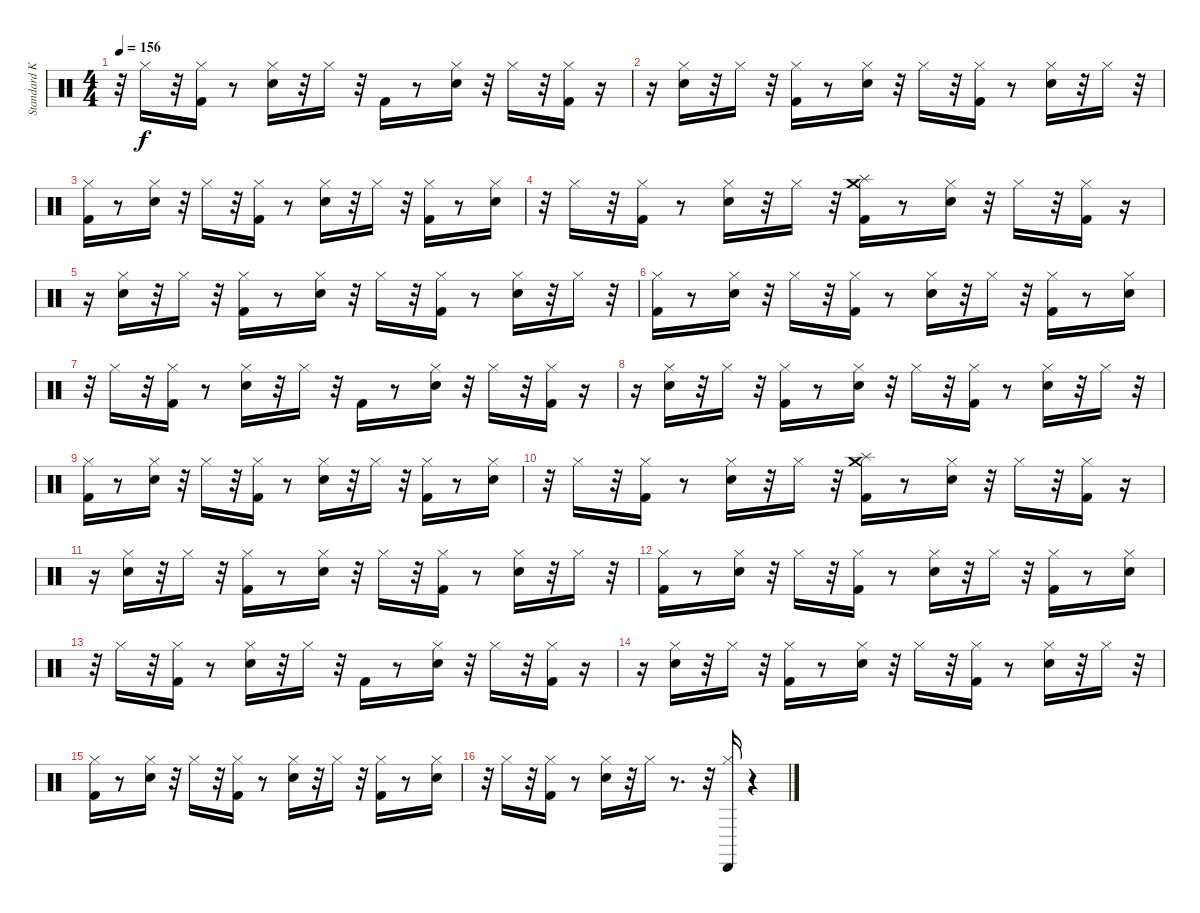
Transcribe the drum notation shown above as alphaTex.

\track ("Standard Kit" "Standard K") {instrument percussion}
\staff {score}
\articulation defaults
\ts (4 4)
\tempo 156
\clef neutral
\ks c
r.32{dy f} "Hi-Hat (closed)".16 r.32 ("Kick (hit) 2" "Hi-Hat (closed)").16 r.8 ("Electric Snare (hit)" "Hi-Hat (closed)").16 r.32 "Hi-Hat (closed)".16 r.32 "Kick (hit) 2".16 r.8 ("Electric Snare (hit)" "Hi-Hat (closed)").16 r.32 "Hi-Hat (closed)".16 r.32 ("Kick (hit) 2" "Hi-Hat (closed)").16 r.16 |
r.16 ("Electric Snare (hit)" "Hi-Hat (closed)").16 r.32 "Hi-Hat (closed)".16 r.32 ("Kick (hit) 2" "Hi-Hat (closed)").16 r.8 ("Electric Snare (hit)" "Hi-Hat (closed)").16 r.32 "Hi-Hat (closed)".16 r.32 ("Kick (hit) 2" "Hi-Hat (closed)").16 r.8 ("Electric Snare (hit)" "Hi-Hat (closed)").16 r.32 "Hi-Hat (closed)".16 r.32 |
("Kick (hit) 2" "Hi-Hat (closed)").16 r.8 ("Electric Snare (hit)" "Hi-Hat (closed)").16 r.32 "Hi-Hat (closed)".16 r.32 ("Kick (hit) 2" "Hi-Hat (closed)").16 r.8 ("Electric Snare (hit)" "Hi-Hat (closed)").16 r.32 "Hi-Hat (closed)".16 r.32 ("Kick (hit) 2" "Hi-Hat (closed)").16 r.8 ("Electric Snare (hit)" "Hi-Hat (closed)").16 |
r.32 "Hi-Hat (closed)".16 r.32 ("Kick (hit) 2" "Hi-Hat (closed)").16 r.8 ("Electric Snare (hit)" "Hi-Hat (closed)").16 r.32 "Hi-Hat (closed)".16 r.32 ("Kick (hit) 2" "Splash (hit)" "Crash medium (hit)").16 r.8 ("Electric Snare (hit)" "Hi-Hat (closed)").16 r.32 "Hi-Hat (closed)".16 r.32 ("Kick (hit) 2" "Hi-Hat (closed)").16 r.16 |
r.16 ("Electric Snare (hit)" "Hi-Hat (closed)").16 r.32 "Hi-Hat (closed)".16 r.32 ("Kick (hit) 2" "Hi-Hat (closed)").16 r.8 ("Electric Snare (hit)" "Hi-Hat (closed)").16 r.32 "Hi-Hat (closed)".16 r.32 ("Kick (hit) 2" "Hi-Hat (closed)").16 r.8 ("Electric Snare (hit)" "Hi-Hat (closed)").16 r.32 "Hi-Hat (closed)".16 r.32 |
("Kick (hit) 2" "Hi-Hat (closed)").16 r.8 ("Electric Snare (hit)" "Hi-Hat (closed)").16 r.32 "Hi-Hat (closed)".16 r.32 ("Kick (hit) 2" "Hi-Hat (closed)").16 r.8 ("Electric Snare (hit)" "Hi-Hat (closed)").16 r.32 "Hi-Hat (closed)".16 r.32 ("Kick (hit) 2" "Hi-Hat (closed)").16 r.8 ("Electric Snare (hit)" "Hi-Hat (closed)").16 |
r.32 "Hi-Hat (closed)".16 r.32 ("Kick (hit) 2" "Hi-Hat (closed)").16 r.8 ("Electric Snare (hit)" "Hi-Hat (closed)").16 r.32 "Hi-Hat (closed)".16 r.32 "Kick (hit) 2".16 r.8 ("Electric Snare (hit)" "Hi-Hat (closed)").16 r.32 "Hi-Hat (closed)".16 r.32 ("Kick (hit) 2" "Hi-Hat (closed)").16 r.16 |
r.16 ("Electric Snare (hit)" "Hi-Hat (closed)").16 r.32 "Hi-Hat (closed)".16 r.32 ("Kick (hit) 2" "Hi-Hat (closed)").16 r.8 ("Electric Snare (hit)" "Hi-Hat (closed)").16 r.32 "Hi-Hat (closed)".16 r.32 ("Kick (hit) 2" "Hi-Hat (closed)").16 r.8 ("Electric Snare (hit)" "Hi-Hat (closed)").16 r.32 "Hi-Hat (closed)".16 r.32 |
("Kick (hit) 2" "Hi-Hat (closed)").16 r.8 ("Electric Snare (hit)" "Hi-Hat (closed)").16 r.32 "Hi-Hat (closed)".16 r.32 ("Kick (hit) 2" "Hi-Hat (closed)").16 r.8 ("Electric Snare (hit)" "Hi-Hat (closed)").16 r.32 "Hi-Hat (closed)".16 r.32 ("Kick (hit) 2" "Hi-Hat (closed)").16 r.8 ("Electric Snare (hit)" "Hi-Hat (closed)").16 |
r.32 "Hi-Hat (closed)".16 r.32 ("Kick (hit) 2" "Hi-Hat (closed)").16 r.8 ("Electric Snare (hit)" "Hi-Hat (closed)").16 r.32 "Hi-Hat (closed)".16 r.32 ("Kick (hit) 2" "Splash (hit)" "Crash medium (hit)").16 r.8 ("Electric Snare (hit)" "Hi-Hat (closed)").16 r.32 "Hi-Hat (closed)".16 r.32 ("Kick (hit) 2" "Hi-Hat (closed)").16 r.16 |
r.16 ("Electric Snare (hit)" "Hi-Hat (closed)").16 r.32 "Hi-Hat (closed)".16 r.32 ("Kick (hit) 2" "Hi-Hat (closed)").16 r.8 ("Electric Snare (hit)" "Hi-Hat (closed)").16 r.32 "Hi-Hat (closed)".16 r.32 ("Kick (hit) 2" "Hi-Hat (closed)").16 r.8 ("Electric Snare (hit)" "Hi-Hat (closed)").16 r.32 "Hi-Hat (closed)".16 r.32 |
("Kick (hit) 2" "Hi-Hat (closed)").16 r.8 ("Electric Snare (hit)" "Hi-Hat (closed)").16 r.32 "Hi-Hat (closed)".16 r.32 ("Kick (hit) 2" "Hi-Hat (closed)").16 r.8 ("Electric Snare (hit)" "Hi-Hat (closed)").16 r.32 "Hi-Hat (closed)".16 r.32 ("Kick (hit) 2" "Hi-Hat (closed)").16 r.8 ("Electric Snare (hit)" "Hi-Hat (closed)").16 |
r.32 "Hi-Hat (closed)".16 r.32 ("Kick (hit) 2" "Hi-Hat (closed)").16 r.8 ("Electric Snare (hit)" "Hi-Hat (closed)").16 r.32 "Hi-Hat (closed)".16 r.32 "Kick (hit) 2".16 r.8 ("Electric Snare (hit)" "Hi-Hat (closed)").16 r.32 "Hi-Hat (closed)".16 r.32 ("Kick (hit) 2" "Hi-Hat (closed)").16 r.16 |
r.16 ("Electric Snare (hit)" "Hi-Hat (closed)").16 r.32 "Hi-Hat (closed)".16 r.32 ("Kick (hit) 2" "Hi-Hat (closed)").16 r.8 ("Electric Snare (hit)" "Hi-Hat (closed)").16 r.32 "Hi-Hat (closed)".16 r.32 ("Kick (hit) 2" "Hi-Hat (closed)").16 r.8 ("Electric Snare (hit)" "Hi-Hat (closed)").16 r.32 "Hi-Hat (closed)".16 r.32 |
("Kick (hit) 2" "Hi-Hat (closed)").16 r.8 ("Electric Snare (hit)" "Hi-Hat (closed)").16 r.32 "Hi-Hat (closed)".16 r.32 ("Kick (hit) 2" "Hi-Hat (closed)").16 r.8 ("Electric Snare (hit)" "Hi-Hat (closed)").16 r.32 "Hi-Hat (closed)".16 r.32 ("Kick (hit) 2" "Hi-Hat (closed)").16 r.8 ("Electric Snare (hit)" "Hi-Hat (closed)").16 |
r.32 "Hi-Hat (closed)".16 r.32 ("Kick (hit) 2" "Hi-Hat (closed)").16 r.8 ("Electric Snare (hit)" "Hi-Hat (closed)").16 r.32 "Hi-Hat (closed)".16 r.8{d} r.32 ("Hi-Hat (closed)" "Cabasa (hit)").16 r.4
